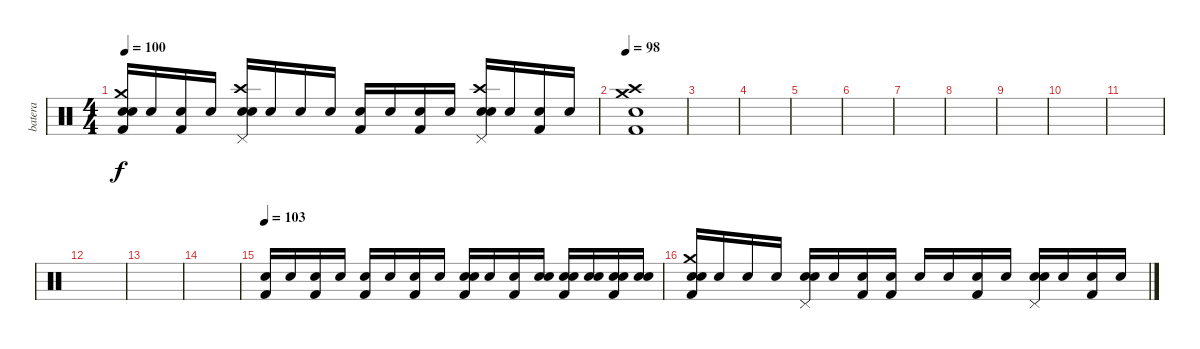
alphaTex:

\track ("batera" "batera") {instrument percussion}
\staff {score}
\articulation defaults
\ts (4 4)
\tempo 100
\clef neutral
\ks c
("Snare (hit)" "Crash medium (hit)" "Kick (hit) 2" "Snare (hit) 2").16{dy f} "Snare (hit)".16 ("Snare (hit)" "Kick (hit) 2").16 "Snare (hit)".16 ("Snare (hit)" "Crash high (hit)" "Pedal Hi-Hat (hit)" "Snare (hit) 2").16 "Snare (hit)".16 "Snare (hit)".16 "Snare (hit)".16 ("Snare (hit)" "Kick (hit) 2").16 "Snare (hit)".16 ("Snare (hit)" "Kick (hit) 2").16 "Snare (hit)".16 ("Snare (hit)" "Crash high (hit)" "Pedal Hi-Hat (hit)" "Snare (hit) 2").16 "Snare (hit)".16 ("Snare (hit)" "Kick (hit) 2").16 "Snare (hit)".16 |
\tempo 98
("Kick (hit) 2" "Snare (hit) 2" "Crash medium (hit)" "Crash high (hit)").1 |
|
|
|
|
|
|
|
|
|
|
|
|
\tempo 103
("Snare (hit)" "Kick (hit) 2").16{volume 5} "Snare (hit)".16 ("Snare (hit)" "Kick (hit) 2").16{volume 6} "Snare (hit)".16 ("Snare (hit)" "Kick (hit) 2").16{volume 7} "Snare (hit)".16 ("Snare (hit)" "Kick (hit) 2").16{volume 8} "Snare (hit)".16 ("Snare (hit)" "Snare (hit) 2" "Kick (hit) 2").16{volume 7} "Snare (hit)".16 ("Snare (hit)" "Kick (hit) 2").16{volume 10} ("Snare (hit)" "Snare (hit) 2").16{volume 9} ("Snare (hit)" "Snare (hit) 2" "Kick (hit) 2").16{volume 10} ("Snare (hit)" "Snare (hit) 2").16{volume 10} ("Snare (hit)" "Snare (hit) 2" "Kick (hit) 2").16{volume 10} ("Snare (hit)" "Snare (hit) 2").16{volume 11} |
("Snare (hit)" "Crash medium (hit)" "Kick (hit) 2" "Snare (hit) 2").16{volume 13} "Snare (hit)".16 "Snare (hit)".16 "Snare (hit)".16 ("Snare (hit)" "Pedal Hi-Hat (hit)" "Snare (hit) 2").16 "Snare (hit)".16 ("Snare (hit)" "Kick (hit) 2").16 ("Snare (hit)" "Kick (hit) 2").16 "Snare (hit)".16 "Snare (hit)".16 ("Snare (hit)" "Kick (hit) 2").16 "Snare (hit)".16 ("Snare (hit)" "Pedal Hi-Hat (hit)" "Snare (hit) 2").16 "Snare (hit)".16 ("Snare (hit)" "Kick (hit) 2").16 "Snare (hit)".16
